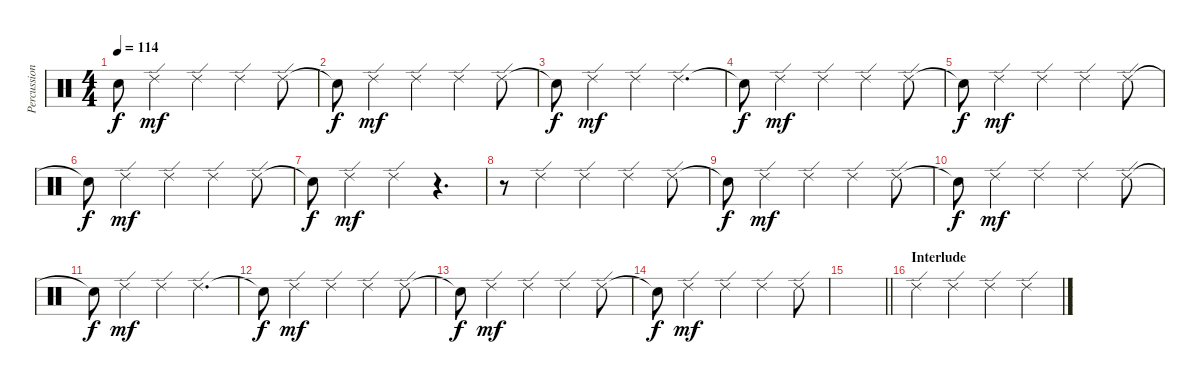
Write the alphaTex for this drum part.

\track ("Percussion (Brandon Saller)" "Percussion") {instrument percussion}
\staff {score}
\articulation defaults
\ts (4 4)
\tempo 114
\clef neutral
\ks c "Snare (hit)"{t}.8{dy f} "Ride (edge) 2".4{dy mf} "Ride (edge) 2".4 "Ride (edge) 2".4 "Ride (edge) 2".8
|
"Snare (hit)"{t}.8{dy f} "Ride (edge) 2".4{dy mf} "Ride (edge) 2".4 "Ride (edge) 2".4 "Ride (edge) 2".8 |
"Snare (hit)"{t}.8{dy f} "Ride (edge) 2".4{dy mf} "Ride (edge) 2".4 "Ride (edge) 2".4{d} |
"Snare (hit)"{t}.8{dy f} "Ride (edge) 2".4{dy mf} "Ride (edge) 2".4 "Ride (edge) 2".4 "Ride (edge) 2".8 |
"Snare (hit)"{t}.8{dy f} "Ride (edge) 2".4{dy mf} "Ride (edge) 2".4 "Ride (edge) 2".4 "Ride (edge) 2".8 |
"Snare (hit)"{t}.8{dy f} "Ride (edge) 2".4{dy mf} "Ride (edge) 2".4 "Ride (edge) 2".4 "Ride (edge) 2".8 |
"Snare (hit)"{t}.8{dy f} "Ride (edge) 2".4{dy mf} "Ride (edge) 2".4 r.4{d} |
r.8 "Ride (edge) 2".4 "Ride (edge) 2".4 "Ride (edge) 2".4 "Ride (edge) 2".8 |
"Snare (hit)"{t}.8{dy f} "Ride (edge) 2".4{dy mf} "Ride (edge) 2".4 "Ride (edge) 2".4 "Ride (edge) 2".8 |
"Snare (hit)"{t}.8{dy f} "Ride (edge) 2".4{dy mf} "Ride (edge) 2".4 "Ride (edge) 2".4 "Ride (edge) 2".8 |
"Snare (hit)"{t}.8{dy f} "Ride (edge) 2".4{dy mf} "Ride (edge) 2".4 "Ride (edge) 2".4{d} |
"Snare (hit)"{t}.8{dy f} "Ride (edge) 2".4{dy mf} "Ride (edge) 2".4 "Ride (edge) 2".4 "Ride (edge) 2".8 |
"Snare (hit)"{t}.8{dy f} "Ride (edge) 2".4{dy mf} "Ride (edge) 2".4 "Ride (edge) 2".4 "Ride (edge) 2".8 |
"Snare (hit)"{t}.8{dy f} "Ride (edge) 2".4{dy mf} "Ride (edge) 2".4 "Ride (edge) 2".4 "Ride (edge) 2".8 |
\barLineRight lightlight
|
\section ("" "Interlude")
"Ride (edge) 2".4 "Ride (edge) 2".4 "Ride (edge) 2".4 "Ride (edge) 2".4
